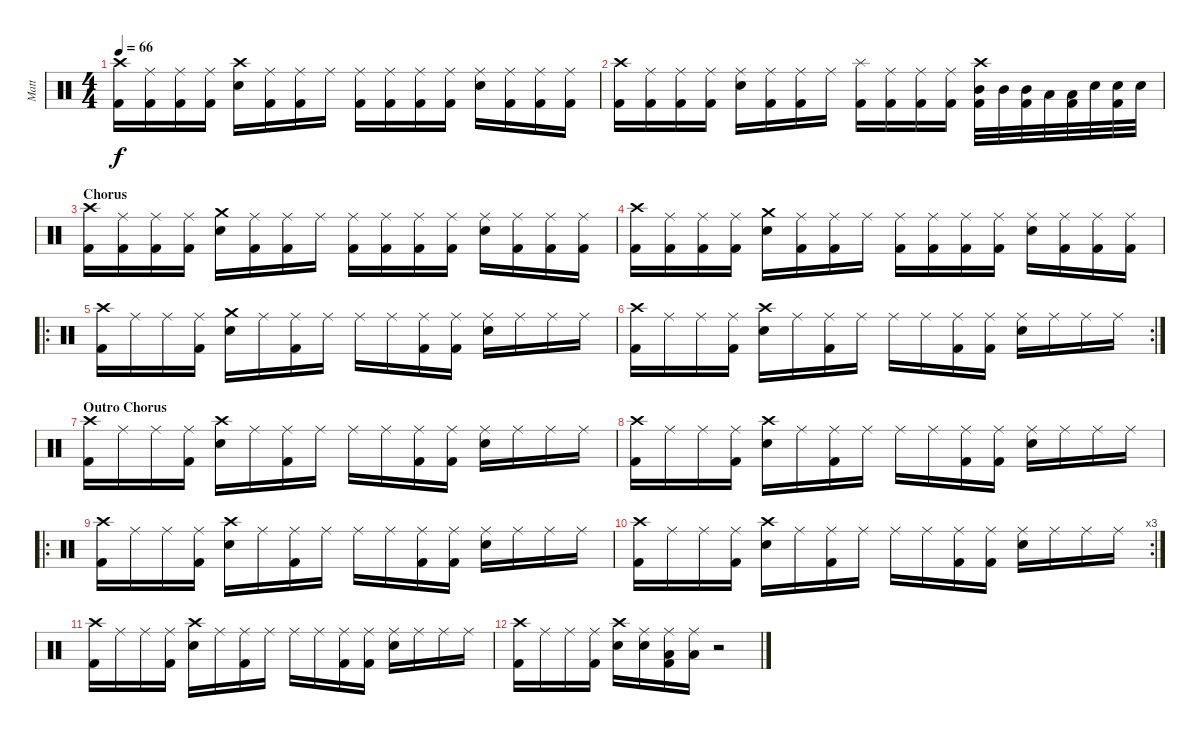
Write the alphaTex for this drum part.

\track ("Matt" "Matt") {instrument percussion}
\staff {score}
\articulation defaults
\ts (4 4)
\tempo 66
\clef neutral
\ks c
("Crash high (hit)" "Kick (hit) 2").16{dy f} ("Ride (middle)" "Kick (hit) 2").16 ("Ride (middle)" "Kick (hit) 2").16 ("Ride (middle)" "Kick (hit) 2").16 ("Crash high (hit)" "Snare (hit) 2").16 ("Ride (middle)" "Kick (hit) 2").16 ("Ride (middle)" "Kick (hit) 2").16 "Ride (middle)".16 ("Ride (middle)" "Kick (hit) 2").16 ("Ride (middle)" "Kick (hit) 2").16 ("Ride (middle)" "Kick (hit) 2").16 ("Ride (middle)" "Kick (hit) 2").16 ("Ride (middle)" "Snare (hit) 2").16 ("Ride (middle)" "Kick (hit) 2").16 ("Ride (middle)" "Kick (hit) 2").16 ("Ride (middle)" "Kick (hit) 2").16 |
("Crash high (hit)" "Kick (hit) 2").16 ("Ride (middle)" "Kick (hit) 2").16 ("Ride (middle)" "Kick (hit) 2").16 ("Ride (middle)" "Kick (hit) 2").16 ("Ride (middle)" "Snare (hit) 2").16 ("Ride (middle)" "Kick (hit) 2").16 ("Ride (middle)" "Kick (hit) 2").16 "Ride (middle)".16 ("Splash (hit)" "Kick (hit) 2").16 ("Ride (middle)" "Kick (hit) 2").16 ("Ride (middle)" "Kick (hit) 2").16 ("Ride (middle)" "Kick (hit) 2").16 ("Crash high (hit)" "Mid Tom (hit)" "Kick (hit) 2").32 "Mid Tom (hit)".32 ("Mid Tom (hit)" "Kick (hit) 2").32 "Low Tom (hit)".32 ("Low Tom (hit)" "Kick (hit) 2").32 "Snare (hit) 2".32 ("Snare (hit) 2" "Kick (hit) 2").32 "Snare (hit) 2".32 |
\section ("" "Chorus")
("Crash high (hit)" "Kick (hit) 2").16 ("Ride (middle)" "Kick (hit) 2").16 ("Ride (middle)" "Kick (hit) 2").16 ("Ride (middle)" "Kick (hit) 2").16 ("Crash medium (hit)" "Snare (hit) 2").16 ("Ride (middle)" "Kick (hit) 2").16 ("Ride (middle)" "Kick (hit) 2").16 "Ride (middle)".16 ("Ride (middle)" "Kick (hit) 2").16 ("Ride (middle)" "Kick (hit) 2").16 ("Ride (middle)" "Kick (hit) 2").16 ("Ride (middle)" "Kick (hit) 2").16 ("Ride (middle)" "Snare (hit) 2").16 ("Ride (middle)" "Kick (hit) 2").16 ("Ride (middle)" "Kick (hit) 2").16 ("Ride (middle)" "Kick (hit) 2").16 |
("Crash high (hit)" "Kick (hit) 2").16 ("Ride (middle)" "Kick (hit) 2").16 ("Ride (middle)" "Kick (hit) 2").16 ("Ride (middle)" "Kick (hit) 2").16 ("Crash medium (hit)" "Snare (hit) 2").16 ("Ride (middle)" "Kick (hit) 2").16 ("Ride (middle)" "Kick (hit) 2").16 "Ride (middle)".16 ("Ride (middle)" "Kick (hit) 2").16 ("Ride (middle)" "Kick (hit) 2").16 ("Ride (middle)" "Kick (hit) 2").16 ("Ride (middle)" "Kick (hit) 2").16 ("Ride (middle)" "Snare (hit) 2").16 ("Ride (middle)" "Kick (hit) 2").16 ("Ride (middle)" "Kick (hit) 2").16 ("Ride (middle)" "Kick (hit) 2").16 |
\ro
("Crash high (hit)" "Kick (hit) 2").16 "Ride (middle)".16 "Ride (middle)".16 ("Ride (middle)" "Kick (hit) 2").16 ("Crash medium (hit)" "Snare (hit) 2").16 "Ride (middle)".16 ("Ride (middle)" "Kick (hit) 2").16 "Ride (middle)".16 "Ride (middle)".16 "Ride (middle)".16 ("Ride (middle)" "Kick (hit) 2").16 ("Ride (middle)" "Kick (hit) 2").16 ("Ride (middle)" "Snare (hit) 2").16 "Ride (middle)".16 "Ride (middle)".16 "Ride (middle)".16 |
\rc 2
("Crash high (hit)" "Kick (hit) 2").16 "Ride (middle)".16 "Ride (middle)".16 ("Ride (middle)" "Kick (hit) 2").16 ("Crash high (hit)" "Snare (hit) 2").16 "Ride (middle)".16 ("Ride (middle)" "Kick (hit) 2").16 "Ride (middle)".16 "Ride (middle)".16 "Ride (middle)".16 ("Ride (middle)" "Kick (hit) 2").16 ("Ride (middle)" "Kick (hit) 2").16 ("Ride (middle)" "Snare (hit) 2").16 "Ride (middle)".16 "Ride (middle)".16 "Ride (middle)".16 |
\section ("" "Outro Chorus")
("Crash high (hit)" "Kick (hit) 2").16 "Ride (middle)".16 "Ride (middle)".16 ("Ride (middle)" "Kick (hit) 2").16 ("Crash high (hit)" "Snare (hit) 2").16 "Ride (middle)".16 ("Ride (middle)" "Kick (hit) 2").16 "Ride (middle)".16 "Ride (middle)".16 "Ride (middle)".16 ("Ride (middle)" "Kick (hit) 2").16 ("Ride (middle)" "Kick (hit) 2").16 ("Ride (middle)" "Snare (hit) 2").16 "Ride (middle)".16 "Ride (middle)".16 "Ride (middle)".16 |
("Crash high (hit)" "Kick (hit) 2").16 "Ride (middle)".16 "Ride (middle)".16 ("Ride (middle)" "Kick (hit) 2").16 ("Crash high (hit)" "Snare (hit) 2").16 "Ride (middle)".16 ("Ride (middle)" "Kick (hit) 2").16 "Ride (middle)".16 "Ride (middle)".16 "Ride (middle)".16 ("Ride (middle)" "Kick (hit) 2").16 ("Ride (middle)" "Kick (hit) 2").16 ("Ride (middle)" "Snare (hit) 2").16 "Ride (middle)".16 "Ride (middle)".16 "Ride (middle)".16 |
\ro
("Crash high (hit)" "Kick (hit) 2").16 "Ride (middle)".16 "Ride (middle)".16 ("Ride (middle)" "Kick (hit) 2").16 ("Crash high (hit)" "Snare (hit) 2").16 "Ride (middle)".16 ("Ride (middle)" "Kick (hit) 2").16 "Ride (middle)".16 "Ride (middle)".16 "Ride (middle)".16 ("Ride (middle)" "Kick (hit) 2").16 ("Ride (middle)" "Kick (hit) 2").16 ("Ride (middle)" "Snare (hit) 2").16 "Ride (middle)".16 "Ride (middle)".16 "Ride (middle)".16 |
\rc 3
("Crash high (hit)" "Kick (hit) 2").16 "Ride (middle)".16 "Ride (middle)".16 ("Ride (middle)" "Kick (hit) 2").16 ("Crash high (hit)" "Snare (hit) 2").16 "Ride (middle)".16 ("Ride (middle)" "Kick (hit) 2").16 "Ride (middle)".16 "Ride (middle)".16 "Ride (middle)".16 ("Ride (middle)" "Kick (hit) 2").16 ("Ride (middle)" "Kick (hit) 2").16 ("Ride (middle)" "Snare (hit) 2").16 "Ride (middle)".16 "Ride (middle)".16 "Ride (middle)".16 |
("Crash high (hit)" "Kick (hit) 2").16 "Ride (middle)".16 "Ride (middle)".16 ("Ride (middle)" "Kick (hit) 2").16 ("Crash high (hit)" "Snare (hit) 2").16 "Ride (middle)".16 ("Ride (middle)" "Kick (hit) 2").16 "Ride (middle)".16 "Ride (middle)".16 "Ride (middle)".16 ("Ride (middle)" "Kick (hit) 2").16 ("Ride (middle)" "Kick (hit) 2").16 ("Ride (middle)" "Snare (hit) 2").16 "Ride (middle)".16 "Ride (middle)".16 "Ride (middle)".16 |
("Crash high (hit)" "Kick (hit) 2").16 "Ride (middle)".16 "Ride (middle)".16 ("Ride (middle)" "Kick (hit) 2").16 ("Crash high (hit)" "Snare (hit) 2").16 ("Ride (middle)" "Snare (hit) 2").16 ("Ride (middle)" "Low Tom (hit)" "Kick (hit) 2").16 ("Ride (middle)" "Low Tom (hit)").16 r.2
